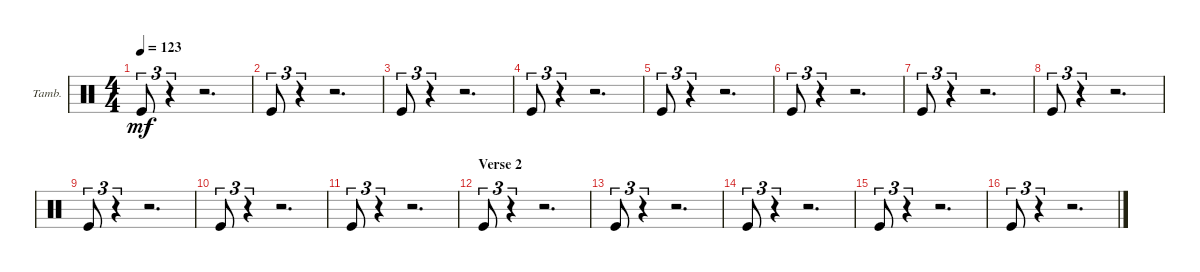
\defaultSystemsLayout 4
\bracketExtendMode groupsimilarinstruments
\firstSystemTrackNameOrientation horizontal
\otherSystemsTrackNameOrientation horizontal
\track ("Tambourine" "Tamb.") {multiBarRest instrument percussion}
\staff {score}
\articulation defaults
\ts (4 4)
\tempo 123
\clef neutral
\ks c "Kick (hit)".8{tu (3 2) dy mf}
r.4{tu (3 2)} r.2{d} |
"Kick (hit)".8{tu (3 2)} r.4{tu (3 2)} r.2{d} |
"Kick (hit)".8{tu (3 2)} r.4{tu (3 2)} r.2{d} |
"Kick (hit)".8{tu (3 2)} r.4{tu (3 2)} r.2{d} |
"Kick (hit)".8{tu (3 2)} r.4{tu (3 2)} r.2{d} |
"Kick (hit)".8{tu (3 2)} r.4{tu (3 2)} r.2{d} |
"Kick (hit)".8{tu (3 2)} r.4{tu (3 2)} r.2{d} |
"Kick (hit)".8{tu (3 2)} r.4{tu (3 2)} r.2{d} |
"Kick (hit)".8{tu (3 2)} r.4{tu (3 2)} r.2{d} |
"Kick (hit)".8{tu (3 2)} r.4{tu (3 2)} r.2{d} |
"Kick (hit)".8{tu (3 2)} r.4{tu (3 2)} r.2{d} |
\section ("" "Verse 2")
"Kick (hit)".8{tu (3 2)} r.4{tu (3 2)} r.2{d} |
"Kick (hit)".8{tu (3 2)} r.4{tu (3 2)} r.2{d} |
"Kick (hit)".8{tu (3 2)} r.4{tu (3 2)} r.2{d} |
"Kick (hit)".8{tu (3 2)} r.4{tu (3 2)} r.2{d} |
"Kick (hit)".8{tu (3 2)} r.4{tu (3 2)} r.2{d}
